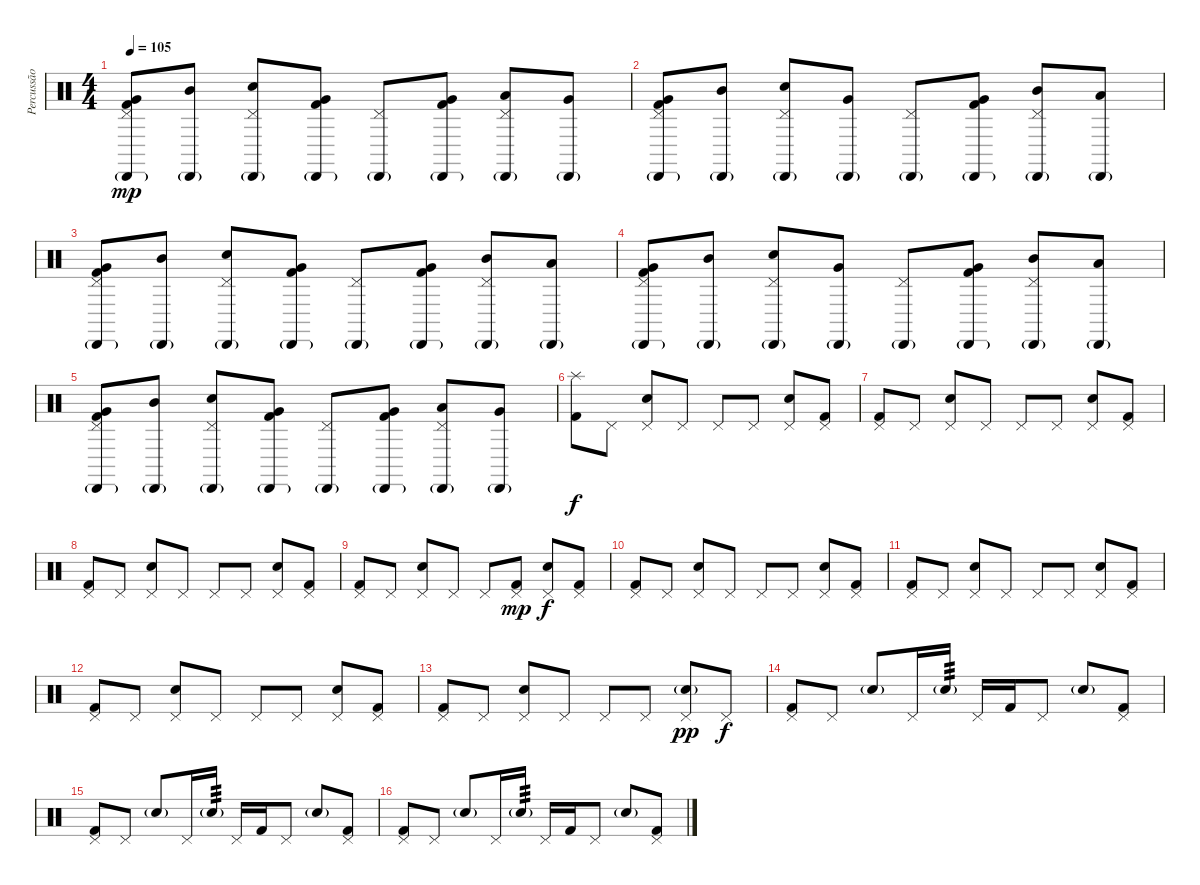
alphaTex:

\track ("Percussão" "Percussão") {instrument percussion}
\staff {score}
\articulation defaults
\ts (4 4)
\tempo 105
\clef neutral
\ks c
("Cabasa (hit)"{g} "Pedal Hi-Hat (hit)" "Very Low Tom (hit)" "Kick (hit) 2").8{dy mp} ("Cabasa (hit)"{g} "Mid Tom (hit)").8 ("Cabasa (hit)"{g} "Pedal Hi-Hat (hit)" "Snare (hit) 2").8 ("Cabasa (hit)"{g} "Very Low Tom (hit)" "Kick (hit) 2").8 ("Cabasa (hit)"{g} "Pedal Hi-Hat (hit)").8 ("Cabasa (hit)"{g} "Very Low Tom (hit)" "Kick (hit) 2").8 ("Cabasa (hit)"{g} "Pedal Hi-Hat (hit)" "Low Tom (hit)").8 ("Cabasa (hit)"{g} "Very Low Tom (hit)").8 |
("Cabasa (hit)"{g} "Pedal Hi-Hat (hit)" "Very Low Tom (hit)" "Kick (hit) 2").8 ("Cabasa (hit)"{g} "Mid Tom (hit)").8 ("Cabasa (hit)"{g} "Pedal Hi-Hat (hit)" "Snare (hit) 2").8 ("Cabasa (hit)"{g} "Very Low Tom (hit)").8 ("Cabasa (hit)"{g} "Pedal Hi-Hat (hit)").8 ("Cabasa (hit)"{g} "Very Low Tom (hit)" "Kick (hit) 2").8 ("Cabasa (hit)"{g} "Pedal Hi-Hat (hit)" "Mid Tom (hit)").8 ("Cabasa (hit)"{g} "Low Tom (hit)").8 |
("Cabasa (hit)"{g} "Pedal Hi-Hat (hit)" "Very Low Tom (hit)" "Kick (hit) 2").8 ("Cabasa (hit)"{g} "Mid Tom (hit)").8 ("Cabasa (hit)"{g} "Pedal Hi-Hat (hit)" "Snare (hit) 2").8 ("Cabasa (hit)"{g} "Very Low Tom (hit)" "Kick (hit) 2").8 ("Cabasa (hit)"{g} "Pedal Hi-Hat (hit)").8 ("Cabasa (hit)"{g} "Very Low Tom (hit)" "Kick (hit) 2").8 ("Cabasa (hit)"{g} "Pedal Hi-Hat (hit)" "Mid Tom (hit)").8 ("Cabasa (hit)"{g} "Low Tom (hit)").8 |
("Cabasa (hit)"{g} "Pedal Hi-Hat (hit)" "Very Low Tom (hit)" "Kick (hit) 2").8 ("Cabasa (hit)"{g} "Mid Tom (hit)").8 ("Cabasa (hit)"{g} "Pedal Hi-Hat (hit)" "Snare (hit) 2").8 ("Cabasa (hit)"{g} "Very Low Tom (hit)").8 ("Cabasa (hit)"{g} "Pedal Hi-Hat (hit)").8 ("Cabasa (hit)"{g} "Very Low Tom (hit)" "Kick (hit) 2").8 ("Cabasa (hit)"{g} "Pedal Hi-Hat (hit)" "Mid Tom (hit)").8 ("Cabasa (hit)"{g} "Low Tom (hit)").8 |
("Cabasa (hit)"{g} "Pedal Hi-Hat (hit)" "Very Low Tom (hit)" "Kick (hit) 2").8 ("Cabasa (hit)"{g} "Mid Tom (hit)").8 ("Cabasa (hit)"{g} "Pedal Hi-Hat (hit)" "Snare (hit) 2").8 ("Cabasa (hit)"{g} "Very Low Tom (hit)" "Kick (hit) 2").8 ("Cabasa (hit)"{g} "Pedal Hi-Hat (hit)").8 ("Cabasa (hit)"{g} "Very Low Tom (hit)" "Kick (hit) 2").8 ("Cabasa (hit)"{g} "Pedal Hi-Hat (hit)" "Low Tom (hit)").8 ("Cabasa (hit)"{g} "Very Low Tom (hit)").8 |
("Splash (hit)" "Kick (hit) 2").8{dy f} "Pedal Hi-Hat (hit)".8 ("Pedal Hi-Hat (hit)" "Snare (hit) 2").8 "Pedal Hi-Hat (hit)".8 "Pedal Hi-Hat (hit)".8 "Pedal Hi-Hat (hit)".8 ("Pedal Hi-Hat (hit)" "Snare (hit) 2").8 ("Pedal Hi-Hat (hit)" "Kick (hit) 2").8 |
("Pedal Hi-Hat (hit)" "Kick (hit) 2").8 "Pedal Hi-Hat (hit)".8 ("Pedal Hi-Hat (hit)" "Snare (hit) 2").8 "Pedal Hi-Hat (hit)".8 "Pedal Hi-Hat (hit)".8 "Pedal Hi-Hat (hit)".8 ("Pedal Hi-Hat (hit)" "Snare (hit) 2").8 ("Pedal Hi-Hat (hit)" "Kick (hit) 2").8 |
("Pedal Hi-Hat (hit)" "Kick (hit) 2").8 "Pedal Hi-Hat (hit)".8 ("Pedal Hi-Hat (hit)" "Snare (hit) 2").8 "Pedal Hi-Hat (hit)".8 "Pedal Hi-Hat (hit)".8 "Pedal Hi-Hat (hit)".8 ("Pedal Hi-Hat (hit)" "Snare (hit) 2").8 ("Pedal Hi-Hat (hit)" "Kick (hit) 2").8 |
("Pedal Hi-Hat (hit)" "Kick (hit) 2").8 "Pedal Hi-Hat (hit)".8 ("Pedal Hi-Hat (hit)" "Snare (hit) 2").8 "Pedal Hi-Hat (hit)".8 "Pedal Hi-Hat (hit)".8 ("Pedal Hi-Hat (hit)" "Kick (hit) 2").8{dy mp} ("Pedal Hi-Hat (hit)" "Snare (hit) 2").8{dy f} ("Pedal Hi-Hat (hit)" "Kick (hit) 2").8 |
("Pedal Hi-Hat (hit)" "Kick (hit) 2").8 "Pedal Hi-Hat (hit)".8 ("Pedal Hi-Hat (hit)" "Snare (hit) 2").8 "Pedal Hi-Hat (hit)".8 "Pedal Hi-Hat (hit)".8 "Pedal Hi-Hat (hit)".8 ("Pedal Hi-Hat (hit)" "Snare (hit) 2").8 ("Pedal Hi-Hat (hit)" "Kick (hit) 2").8 |
("Pedal Hi-Hat (hit)" "Kick (hit) 2").8 "Pedal Hi-Hat (hit)".8 ("Pedal Hi-Hat (hit)" "Snare (hit) 2").8 "Pedal Hi-Hat (hit)".8 "Pedal Hi-Hat (hit)".8 "Pedal Hi-Hat (hit)".8 ("Pedal Hi-Hat (hit)" "Snare (hit) 2").8 ("Pedal Hi-Hat (hit)" "Kick (hit) 2").8 |
("Pedal Hi-Hat (hit)" "Kick (hit) 2").8 "Pedal Hi-Hat (hit)".8 ("Pedal Hi-Hat (hit)" "Snare (hit) 2").8 "Pedal Hi-Hat (hit)".8 "Pedal Hi-Hat (hit)".8 "Pedal Hi-Hat (hit)".8 ("Pedal Hi-Hat (hit)" "Snare (hit) 2").8 ("Pedal Hi-Hat (hit)" "Kick (hit) 2").8 |
("Pedal Hi-Hat (hit)" "Kick (hit) 2").8 "Pedal Hi-Hat (hit)".8 ("Pedal Hi-Hat (hit)" "Snare (hit) 2").8 "Pedal Hi-Hat (hit)".8 "Pedal Hi-Hat (hit)".8 "Pedal Hi-Hat (hit)".8 ("Pedal Hi-Hat (hit)" "Electric Snare (hit)"{g}).8{dy pp} "Pedal Hi-Hat (hit)".8{dy f} |
("Pedal Hi-Hat (hit)" "Kick (hit) 2").8 "Pedal Hi-Hat (hit)".8 "Electric Snare (hit)"{g}.8 "Pedal Hi-Hat (hit)".16 "Electric Snare (hit)"{g}.16{tp 3} "Pedal Hi-Hat (hit)".16 "Kick (hit) 2".16 "Pedal Hi-Hat (hit)".8 "Electric Snare (hit)"{g}.8 ("Pedal Hi-Hat (hit)" "Kick (hit) 2").8 |
("Pedal Hi-Hat (hit)" "Kick (hit) 2").8 "Pedal Hi-Hat (hit)".8 "Electric Snare (hit)"{g}.8 "Pedal Hi-Hat (hit)".16 "Electric Snare (hit)"{g}.16{tp 3} "Pedal Hi-Hat (hit)".16 "Kick (hit) 2".16 "Pedal Hi-Hat (hit)".8 "Electric Snare (hit)"{g}.8 ("Pedal Hi-Hat (hit)" "Kick (hit) 2").8 |
("Pedal Hi-Hat (hit)" "Kick (hit) 2").8 "Pedal Hi-Hat (hit)".8 "Electric Snare (hit)"{g}.8 "Pedal Hi-Hat (hit)".16 "Electric Snare (hit)"{g}.16{tp 3} "Pedal Hi-Hat (hit)".16 "Kick (hit) 2".16 "Pedal Hi-Hat (hit)".8 "Electric Snare (hit)"{g}.8 ("Pedal Hi-Hat (hit)" "Kick (hit) 2").8
